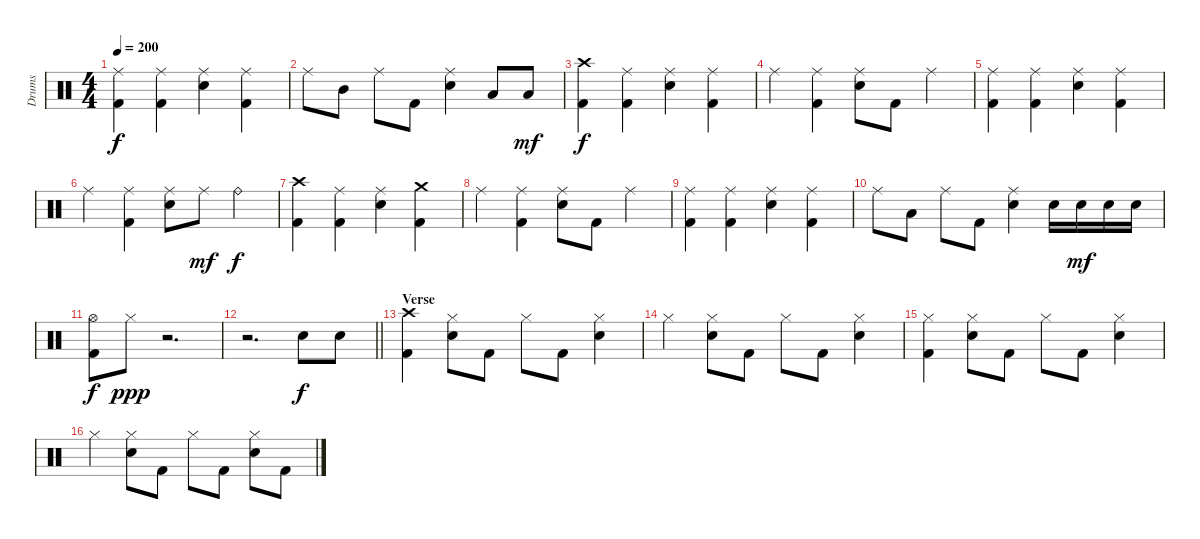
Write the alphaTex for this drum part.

\track ("Drums" "Drums") {instrument percussion}
\staff {score}
\articulation defaults
\ts (4 4)
\tempo 200
\clef neutral
\ks c
("Kick (hit) 2" "Ride (middle)").4{dy f} ("Kick (hit) 2" "Ride (middle)").4 ("Ride (middle)" "Electric Snare (hit)").4 ("Kick (hit) 2" "Ride (middle)").4 |
"Ride (middle)".8 "Mid Tom (hit)".8 "Ride (middle)".8 "Kick (hit) 2".8 ("Ride (middle)" "Electric Snare (hit)").4 "Low Tom (hit)".8 "Low Tom (hit)".8{dy mf} |
("Kick (hit) 2" "Crash high (hit)").4{dy f} ("Kick (hit) 2" "Ride (middle)").4 ("Ride (middle)" "Electric Snare (hit)").4 ("Kick (hit) 2" "Ride (middle)").4 |
"Ride (middle)".4 ("Kick (hit) 2" "Ride (middle)").4 ("Ride (middle)" "Electric Snare (hit)").8 "Kick (hit) 2".8 "Ride (middle)".4 |
("Kick (hit) 2" "Ride (middle)").4 ("Kick (hit) 2" "Ride (middle)").4 ("Ride (middle)" "Electric Snare (hit)").4 ("Kick (hit) 2" "Ride (middle)").4 |
"Ride (middle)".4 ("Kick (hit) 2" "Ride (middle)").4 ("Ride (middle)" "Electric Snare (hit)").8 "Ride (middle)".8{dy mf} "Ride (bell)".4{dy f} |
("Kick (hit) 2" "Crash high (hit)").4 ("Kick (hit) 2" "Ride (middle)").4 ("Ride (middle)" "Electric Snare (hit)").4 ("Kick (hit) 2" "Crash medium (hit)").4 |
"Ride (middle)".4 ("Kick (hit) 2" "Ride (middle)").4 ("Ride (middle)" "Electric Snare (hit)").8 "Kick (hit) 2".8 "Ride (middle)".4 |
("Kick (hit) 2" "Ride (middle)").4 ("Kick (hit) 2" "Ride (middle)").4 ("Ride (middle)" "Electric Snare (hit)").4 ("Kick (hit) 2" "Ride (middle)").4 |
"Ride (middle)".8 "Low Tom (hit)".8 "Ride (middle)".8 "Kick (hit) 2".8 ("Ride (middle)" "Electric Snare (hit)").4 "Electric Snare (hit)".16 "Electric Snare (hit)".16{dy mf} "Electric Snare (hit)".16 "Electric Snare (hit)".16 |
("Kick (hit) 2" "Hi-Hat (open)").8{dy f} "Hi-Hat (closed)".8{dy ppp} r.2{d} |
\barLineRight lightlight
r.2{d} "Electric Snare (hit)".8{dy f} "Electric Snare (hit)".8 |
\section ("" "Verse")
("Kick (hit) 2" "Crash high (hit)").4 ("Hi-Hat (closed)" "Electric Snare (hit)").8 "Kick (hit) 2".8 "Hi-Hat (closed)".8 "Kick (hit) 2".8 ("Hi-Hat (closed)" "Electric Snare (hit)").4 |
"Hi-Hat (closed)".4 ("Hi-Hat (closed)" "Electric Snare (hit)").8 "Kick (hit) 2".8 "Hi-Hat (closed)".8 "Kick (hit) 2".8 ("Hi-Hat (closed)" "Electric Snare (hit)").4 |
("Kick (hit) 2" "Hi-Hat (closed)").4 ("Hi-Hat (closed)" "Electric Snare (hit)").8 "Kick (hit) 2".8 "Hi-Hat (closed)".8 "Kick (hit) 2".8 ("Hi-Hat (closed)" "Electric Snare (hit)").4 |
"Hi-Hat (closed)".4 ("Hi-Hat (closed)" "Electric Snare (hit)").8 "Kick (hit) 2".8 "Hi-Hat (closed)".8 "Kick (hit) 2".8 ("Hi-Hat (closed)" "Electric Snare (hit)").8 "Kick (hit) 2".8
